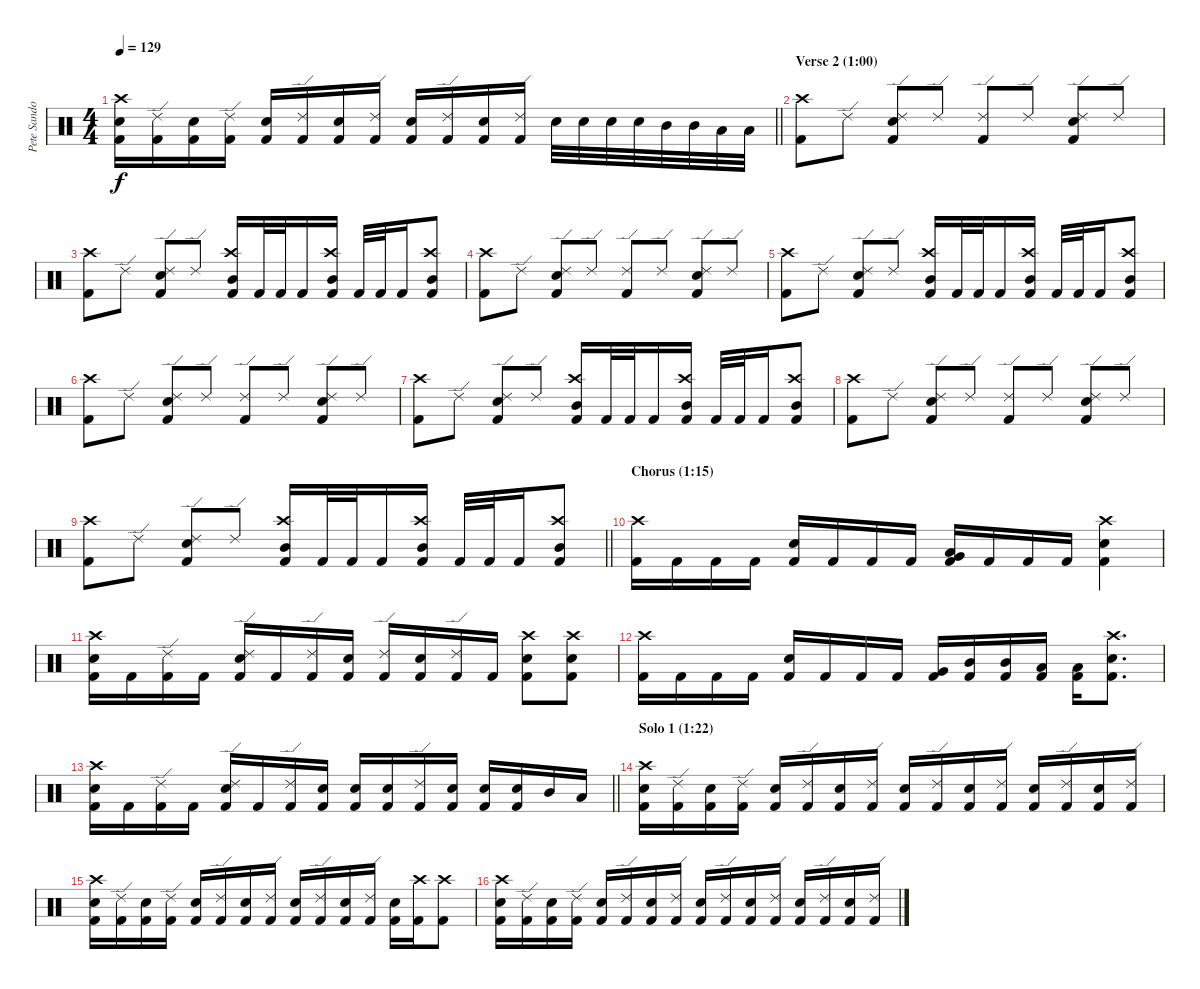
\track ("Pete Sandoval " "Pete Sando") {instrument percussion}
\staff {score}
\articulation defaults
\ts (4 4)
\tempo 129
\clef neutral
\barLineRight lightlight
\ks c
("Kick (hit) 2" "Snare (hit) 2" "Crash high (hit)").16{dy f} ("Kick (hit) 2" "Ride (edge) 2").16 ("Kick (hit) 2" "Snare (hit) 2").16 ("Kick (hit) 2" "Ride (edge) 2").16 ("Kick (hit) 2" "Snare (hit) 2").16 ("Kick (hit) 2" "Ride (edge) 2").16 ("Kick (hit) 2" "Snare (hit) 2").16 ("Kick (hit) 2" "Ride (edge) 2").16 ("Kick (hit) 2" "Snare (hit) 2").16 ("Kick (hit) 2" "Ride (edge) 2").16 ("Kick (hit) 2" "Snare (hit) 2").16 ("Kick (hit) 2" "Ride (edge) 2").16 "Snare (hit) 2".32 "Snare (hit) 2".32 "Snare (hit) 2".32 "Snare (hit) 2".32 "Mid Tom (hit)".32 "Mid Tom (hit)".32 "Low Tom (hit)".32 "Low Tom (hit)".32 |
\section ("" "Verse 2 (1:00)")
("Kick (hit) 2" "Crash high (hit)").8 "Ride (edge) 2".8 ("Kick (hit) 2" "Snare (hit) 2" "Ride (edge) 2").8 "Ride (edge) 2".8 ("Kick (hit) 2" "Ride (edge) 2").8 "Ride (edge) 2".8 ("Kick (hit) 2" "Snare (hit) 2" "Ride (edge) 2").8 "Ride (edge) 2".8 |
("Kick (hit) 2" "Crash high (hit)").8 "Ride (edge) 2".8 ("Kick (hit) 2" "Snare (hit) 2" "Ride (edge) 2").8 "Ride (edge) 2".8 ("Kick (hit) 2" "Mid Tom (hit)" "Crash high (hit)").16 "Kick (hit) 2".32 "Kick (hit) 2".32 "Kick (hit) 2".16 ("Kick (hit) 2" "Mid Tom (hit)" "Crash high (hit)").16 "Kick (hit) 2".32 "Kick (hit) 2".32 "Kick (hit) 2".16 ("Kick (hit) 2" "Mid Tom (hit)" "Crash high (hit)").8 |
("Kick (hit) 2" "Crash high (hit)").8 "Ride (edge) 2".8 ("Kick (hit) 2" "Snare (hit) 2" "Ride (edge) 2").8 "Ride (edge) 2".8 ("Kick (hit) 2" "Ride (edge) 2").8 "Ride (edge) 2".8 ("Kick (hit) 2" "Snare (hit) 2" "Ride (edge) 2").8 "Ride (edge) 2".8 |
("Kick (hit) 2" "Crash high (hit)").8 "Ride (edge) 2".8 ("Kick (hit) 2" "Snare (hit) 2" "Ride (edge) 2").8 "Ride (edge) 2".8 ("Kick (hit) 2" "Mid Tom (hit)" "Crash high (hit)").16 "Kick (hit) 2".32 "Kick (hit) 2".32 "Kick (hit) 2".16 ("Kick (hit) 2" "Mid Tom (hit)" "Crash high (hit)").16 "Kick (hit) 2".32 "Kick (hit) 2".32 "Kick (hit) 2".16 ("Kick (hit) 2" "Mid Tom (hit)" "Crash high (hit)").8 |
("Kick (hit) 2" "Crash high (hit)").8 "Ride (edge) 2".8 ("Kick (hit) 2" "Snare (hit) 2" "Ride (edge) 2").8 "Ride (edge) 2".8 ("Kick (hit) 2" "Ride (edge) 2").8 "Ride (edge) 2".8 ("Kick (hit) 2" "Snare (hit) 2" "Ride (edge) 2").8 "Ride (edge) 2".8 |
("Kick (hit) 2" "Crash high (hit)").8 "Ride (edge) 2".8 ("Kick (hit) 2" "Snare (hit) 2" "Ride (edge) 2").8 "Ride (edge) 2".8 ("Kick (hit) 2" "Mid Tom (hit)" "Crash high (hit)").16 "Kick (hit) 2".32 "Kick (hit) 2".32 "Kick (hit) 2".16 ("Kick (hit) 2" "Mid Tom (hit)" "Crash high (hit)").16 "Kick (hit) 2".32 "Kick (hit) 2".32 "Kick (hit) 2".16 ("Kick (hit) 2" "Mid Tom (hit)" "Crash high (hit)").8 |
("Kick (hit) 2" "Crash high (hit)").8 "Ride (edge) 2".8 ("Kick (hit) 2" "Snare (hit) 2" "Ride (edge) 2").8 "Ride (edge) 2".8 ("Kick (hit) 2" "Ride (edge) 2").8 "Ride (edge) 2".8 ("Kick (hit) 2" "Snare (hit) 2" "Ride (edge) 2").8 "Ride (edge) 2".8 |
\barLineRight lightlight
("Kick (hit) 2" "Crash high (hit)").8 "Ride (edge) 2".8 ("Kick (hit) 2" "Snare (hit) 2" "Ride (edge) 2").8 "Ride (edge) 2".8 ("Kick (hit) 2" "Mid Tom (hit)" "Crash high (hit)").16 "Kick (hit) 2".32 "Kick (hit) 2".32 "Kick (hit) 2".16 ("Kick (hit) 2" "Mid Tom (hit)" "Crash high (hit)").16 "Kick (hit) 2".32 "Kick (hit) 2".32 "Kick (hit) 2".16 ("Kick (hit) 2" "Mid Tom (hit)" "Crash high (hit)").8 |
\section ("" "Chorus (1:15)")
("Kick (hit) 2" "Crash high (hit)").16 "Kick (hit) 2".16 "Kick (hit) 2".16 "Kick (hit) 2".16 ("Kick (hit) 2" "Snare (hit) 2").16 "Kick (hit) 2".16 "Kick (hit) 2".16 "Kick (hit) 2".16 ("Kick (hit) 2" "Very Low Tom (hit)" "Low Floor Tom (hit)").16 "Kick (hit) 2".16 "Kick (hit) 2".16 "Kick (hit) 2".16 ("Kick (hit) 2" "Snare (hit) 2" "Crash high (hit)").4 |
("Kick (hit) 2" "Snare (hit) 2" "Crash high (hit)").16 "Kick (hit) 2".16 ("Kick (hit) 2" "Ride (edge) 2").16 "Kick (hit) 2".16 ("Kick (hit) 2" "Snare (hit) 2" "Ride (edge) 2").16 "Kick (hit) 2".16 ("Kick (hit) 2" "Ride (edge) 2").16 ("Kick (hit) 2" "Snare (hit) 2").16 ("Kick (hit) 2" "Ride (edge) 2").16 ("Kick (hit) 2" "Snare (hit) 2").16 ("Kick (hit) 2" "Ride (edge) 2").16 "Kick (hit) 2".16 ("Kick (hit) 2" "Snare (hit) 2" "Crash high (hit)").8 ("Kick (hit) 2" "Snare (hit) 2" "Crash high (hit)").8 |
("Kick (hit) 2" "Crash high (hit)").16 "Kick (hit) 2".16 "Kick (hit) 2".16 "Kick (hit) 2".16 ("Kick (hit) 2" "Snare (hit) 2").16 "Kick (hit) 2".16 "Kick (hit) 2".16 "Kick (hit) 2".16 ("Kick (hit) 2" "Very Low Tom (hit)").16 ("Kick (hit) 2" "Mid Tom (hit)").16 ("Kick (hit) 2" "Mid Tom (hit)").16 ("Kick (hit) 2" "Low Tom (hit)").16 ("Kick (hit) 2" "Low Tom (hit)").16 ("Kick (hit) 2" "Snare (hit) 2" "Crash high (hit)").8{d} |
\barLineRight lightlight
("Kick (hit) 2" "Snare (hit) 2" "Crash high (hit)").16 "Kick (hit) 2".16 ("Kick (hit) 2" "Ride (edge) 2").16 "Kick (hit) 2".16 ("Kick (hit) 2" "Snare (hit) 2" "Ride (edge) 2").16 "Kick (hit) 2".16 ("Kick (hit) 2" "Ride (edge) 2").16 ("Kick (hit) 2" "Snare (hit) 2").16 ("Kick (hit) 2" "Snare (hit) 2").16 ("Kick (hit) 2" "Snare (hit) 2").16 ("Kick (hit) 2" "Ride (edge) 2").16 ("Kick (hit) 2" "Snare (hit) 2").16 ("Kick (hit) 2" "Snare (hit) 2").16 ("Kick (hit) 2" "Snare (hit) 2").16 "Mid Tom (hit)".16 "Low Tom (hit)".16 |
\section ("" "Solo 1 (1:22)")
("Kick (hit) 2" "Snare (hit) 2" "Crash high (hit)").16 ("Kick (hit) 2" "Ride (edge) 2").16 ("Kick (hit) 2" "Snare (hit) 2").16 ("Kick (hit) 2" "Ride (edge) 2").16 ("Kick (hit) 2" "Snare (hit) 2").16 ("Kick (hit) 2" "Ride (edge) 2").16 ("Kick (hit) 2" "Snare (hit) 2").16 ("Kick (hit) 2" "Ride (edge) 2").16 ("Kick (hit) 2" "Snare (hit) 2").16 ("Kick (hit) 2" "Ride (edge) 2").16 ("Kick (hit) 2" "Snare (hit) 2").16 ("Kick (hit) 2" "Ride (edge) 2").16 ("Kick (hit) 2" "Snare (hit) 2").16 ("Kick (hit) 2" "Ride (edge) 2").16 ("Kick (hit) 2" "Snare (hit) 2").16 ("Kick (hit) 2" "Ride (edge) 2").16 |
("Kick (hit) 2" "Snare (hit) 2" "Crash high (hit)").16 ("Kick (hit) 2" "Ride (edge) 2").16 ("Kick (hit) 2" "Snare (hit) 2").16 ("Kick (hit) 2" "Ride (edge) 2").16 ("Kick (hit) 2" "Snare (hit) 2").16 ("Kick (hit) 2" "Ride (edge) 2").16 ("Kick (hit) 2" "Snare (hit) 2").16 ("Kick (hit) 2" "Ride (edge) 2").16 ("Kick (hit) 2" "Snare (hit) 2").16 ("Kick (hit) 2" "Ride (edge) 2").16 ("Kick (hit) 2" "Snare (hit) 2").16 ("Kick (hit) 2" "Ride (edge) 2").16 ("Kick (hit) 2" "Snare (hit) 2").16 ("Kick (hit) 2" "Crash high (hit)").16 ("Kick (hit) 2" "Crash high (hit)").8 |
("Kick (hit) 2" "Snare (hit) 2" "Crash high (hit)").16 ("Kick (hit) 2" "Ride (edge) 2").16 ("Kick (hit) 2" "Snare (hit) 2").16 ("Kick (hit) 2" "Ride (edge) 2").16 ("Kick (hit) 2" "Snare (hit) 2").16 ("Kick (hit) 2" "Ride (edge) 2").16 ("Kick (hit) 2" "Snare (hit) 2").16 ("Kick (hit) 2" "Ride (edge) 2").16 ("Kick (hit) 2" "Snare (hit) 2").16 ("Kick (hit) 2" "Ride (edge) 2").16 ("Kick (hit) 2" "Snare (hit) 2").16 ("Kick (hit) 2" "Ride (edge) 2").16 ("Kick (hit) 2" "Snare (hit) 2").16 ("Kick (hit) 2" "Ride (edge) 2").16 ("Kick (hit) 2" "Snare (hit) 2").16 ("Kick (hit) 2" "Ride (edge) 2").16
